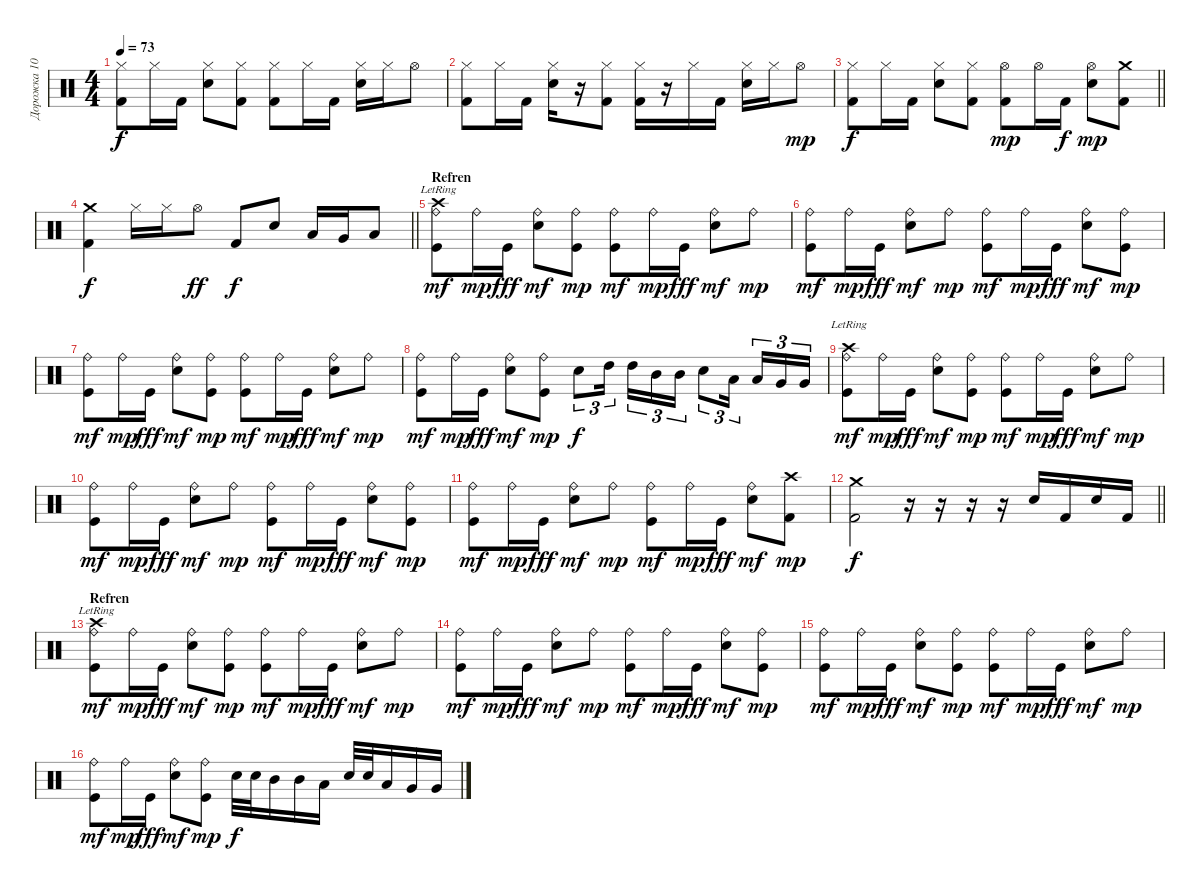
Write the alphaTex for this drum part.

\track ("Дорожка 10" "Дорожка 10") {instrument percussion}
\staff {score}
\articulation defaults
\ts (4 4)
\tempo 73
\clef neutral
\ks c
("Hi-Hat (closed)" "Kick (hit) 2").8{dy f} "Hi-Hat (closed)".16 "Kick (hit) 2".16 ("Hi-Hat (closed)" "Snare (hit) 2").8 ("Hi-Hat (closed)" "Kick (hit) 2").8 ("Hi-Hat (closed)" "Kick (hit) 2").8 "Hi-Hat (closed)".16 "Kick (hit) 2".16 ("Hi-Hat (closed)" "Snare (hit) 2").16 "Hi-Hat (closed)".16 "Hi-Hat (open)".8 |
("Hi-Hat (closed)" "Kick (hit) 2").8 "Hi-Hat (closed)".16 "Kick (hit) 2".16 ("Hi-Hat (closed)" "Snare (hit) 2").16 r.16 ("Hi-Hat (closed)" "Kick (hit) 2").8 ("Hi-Hat (closed)" "Kick (hit) 2").16 r.16 "Hi-Hat (closed)".16 "Kick (hit) 2".16 ("Hi-Hat (closed)" "Snare (hit) 2").16 "Hi-Hat (closed)".16 "Hi-Hat (open)".8{dy mp} |
\barLineRight lightlight
("Hi-Hat (closed)" "Kick (hit) 2").8{dy f} "Hi-Hat (closed)".16 "Kick (hit) 2".16 ("Hi-Hat (closed)" "Snare (hit) 2").8 ("Hi-Hat (closed)" "Kick (hit) 2").8 ("Hi-Hat (open)" "Kick (hit) 2").8{dy mp} "Hi-Hat (open)".16 "Kick (hit) 2".16{dy f} ("Hi-Hat (open)" "Snare (hit) 2").8{dy mp} ("Crash medium (hit)" "Kick (hit) 2").8 |
\barLineRight lightlight
("Crash medium (hit)" "Kick (hit) 2").4{dy f} "Hi-Hat (closed)".16 "Hi-Hat (closed)".16 "Hi-Hat (open)".8{dy ff} "Kick (hit) 2".8{dy f} "Electric Snare (hit)".8 "Low Tom (hit)".16 "Very Low Tom (hit)".16 "Low Floor Tom (hit)".8 |
\section ("" "Refren")
("Crash high (hit)"{lr} "Kick (hit)" "Ride (bell)").8{dy mf} "Ride (bell)".16{dy mp} "Kick (hit)".16{dy fff} ("Snare (hit) 2" "Ride (bell)").8{dy mf} ("Kick (hit)" "Ride (bell)").8{dy mp} ("Kick (hit)" "Ride (bell)").8{dy mf} "Ride (bell)".16{dy mp} "Kick (hit)".16{dy fff} ("Snare (hit) 2" "Ride (bell)").8{dy mf} "Ride (bell)".8{dy mp} |
("Kick (hit)" "Ride (bell)").8{dy mf} "Ride (bell)".16{dy mp} "Kick (hit)".16{dy fff} ("Snare (hit) 2" "Ride (bell)").8{dy mf} "Ride (bell)".8{dy mp} ("Kick (hit)" "Ride (bell)").8{dy mf} "Ride (bell)".16{dy mp} "Kick (hit)".16{dy fff} ("Snare (hit) 2" "Ride (bell)").8{dy mf} ("Kick (hit)" "Ride (bell)").8{dy mp} |
("Kick (hit)" "Ride (bell)").8{dy mf} "Ride (bell)".16{dy mp} "Kick (hit)".16{dy fff} ("Snare (hit) 2" "Ride (bell)").8{dy mf} ("Kick (hit)" "Ride (bell)").8{dy mp} ("Kick (hit)" "Ride (bell)").8{dy mf} "Ride (bell)".16{dy mp} "Kick (hit)".16{dy fff} ("Snare (hit) 2" "Ride (bell)").8{dy mf} "Ride (bell)".8{dy mp} |
("Kick (hit)" "Ride (bell)").8{dy mf} "Ride (bell)".16{dy mp} "Kick (hit)".16{dy fff} ("Snare (hit) 2" "Ride (bell)").8{dy mf} ("Kick (hit)" "Ride (bell)").8{dy mp} "Snare (hit) 2".8{tu (3 2) dy f} "High Tom (hit)".16{tu (3 2) beam splitsecondary} "High Tom (hit)".16{tu (3 2)} "Mid Tom (hit)".16{tu (3 2)} "Mid Tom (hit)".16{tu (3 2)} "Snare (hit) 2".8{tu (3 2)} "Low Tom (hit)".16{tu (3 2) beam splitsecondary} "Low Tom (hit)".16{tu (3 2)} "Very Low Tom (hit)".16{tu (3 2)} "Very Low Tom (hit)".16{tu (3 2)} |
("Crash high (hit)"{lr} "Kick (hit)" "Ride (bell)").8{dy mf} "Ride (bell)".16{dy mp} "Kick (hit)".16{dy fff} ("Snare (hit) 2" "Ride (bell)").8{dy mf} ("Kick (hit)" "Ride (bell)").8{dy mp} ("Kick (hit)" "Ride (bell)").8{dy mf} "Ride (bell)".16{dy mp} "Kick (hit)".16{dy fff} ("Snare (hit) 2" "Ride (bell)").8{dy mf} "Ride (bell)".8{dy mp} |
("Kick (hit)" "Ride (bell)").8{dy mf} "Ride (bell)".16{dy mp} "Kick (hit)".16{dy fff} ("Snare (hit) 2" "Ride (bell)").8{dy mf} "Ride (bell)".8{dy mp} ("Kick (hit)" "Ride (bell)").8{dy mf} "Ride (bell)".16{dy mp} "Kick (hit)".16{dy fff} ("Snare (hit) 2" "Ride (bell)").8{dy mf} ("Kick (hit)" "Ride (bell)").8{dy mp} |
("Kick (hit)" "Ride (bell)").8{dy mf} "Ride (bell)".16{dy mp} "Kick (hit)".16{dy fff} ("Snare (hit) 2" "Ride (bell)").8{dy mf} "Ride (bell)".8{dy mp} ("Kick (hit)" "Ride (bell)").8{dy mf} "Ride (bell)".16{dy mp} "Kick (hit)".16{dy fff} ("Snare (hit) 2" "Ride (bell)").8{dy mf} ("Crash high (hit)" "Kick (hit) 2").8{dy mp} |
\barLineRight lightlight
("Crash medium (hit)" "Kick (hit) 2").2{dy f} r.16 r.16 r.16 r.16 "Snare (hit) 2".16 "Kick (hit) 2".16 "Snare (hit) 2".16 "Kick (hit) 2".16 |
\section ("" "Refren")
("Crash high (hit)"{lr} "Kick (hit)" "Ride (bell)").8{dy mf} "Ride (bell)".16{dy mp} "Kick (hit)".16{dy fff} ("Snare (hit) 2" "Ride (bell)").8{dy mf} ("Kick (hit)" "Ride (bell)").8{dy mp} ("Kick (hit)" "Ride (bell)").8{dy mf} "Ride (bell)".16{dy mp} "Kick (hit)".16{dy fff} ("Snare (hit) 2" "Ride (bell)").8{dy mf} "Ride (bell)".8{dy mp} |
("Kick (hit)" "Ride (bell)").8{dy mf} "Ride (bell)".16{dy mp} "Kick (hit)".16{dy fff} ("Snare (hit) 2" "Ride (bell)").8{dy mf} "Ride (bell)".8{dy mp} ("Kick (hit)" "Ride (bell)").8{dy mf} "Ride (bell)".16{dy mp} "Kick (hit)".16{dy fff} ("Snare (hit) 2" "Ride (bell)").8{dy mf} ("Kick (hit)" "Ride (bell)").8{dy mp} |
("Kick (hit)" "Ride (bell)").8{dy mf} "Ride (bell)".16{dy mp} "Kick (hit)".16{dy fff} ("Snare (hit) 2" "Ride (bell)").8{dy mf} ("Kick (hit)" "Ride (bell)").8{dy mp} ("Kick (hit)" "Ride (bell)").8{dy mf} "Ride (bell)".16{dy mp} "Kick (hit)".16{dy fff} ("Snare (hit) 2" "Ride (bell)").8{dy mf} "Ride (bell)".8{dy mp} |
("Kick (hit)" "Ride (bell)").8{dy mf} "Ride (bell)".16{dy mp} "Kick (hit)".16{dy fff} ("Snare (hit) 2" "Ride (bell)").8{dy mf} ("Kick (hit)" "Ride (bell)").8{dy mp} "Snare (hit) 2".32{dy f} "Snare (hit) 2".32 "Mid Tom (hit)".16 "Mid Tom (hit)".16 "Low Tom (hit)".16 "Snare (hit) 2".32 "Snare (hit) 2".32 "Low Tom (hit)".16 "Very Low Tom (hit)".16 "Very Low Tom (hit)".16
